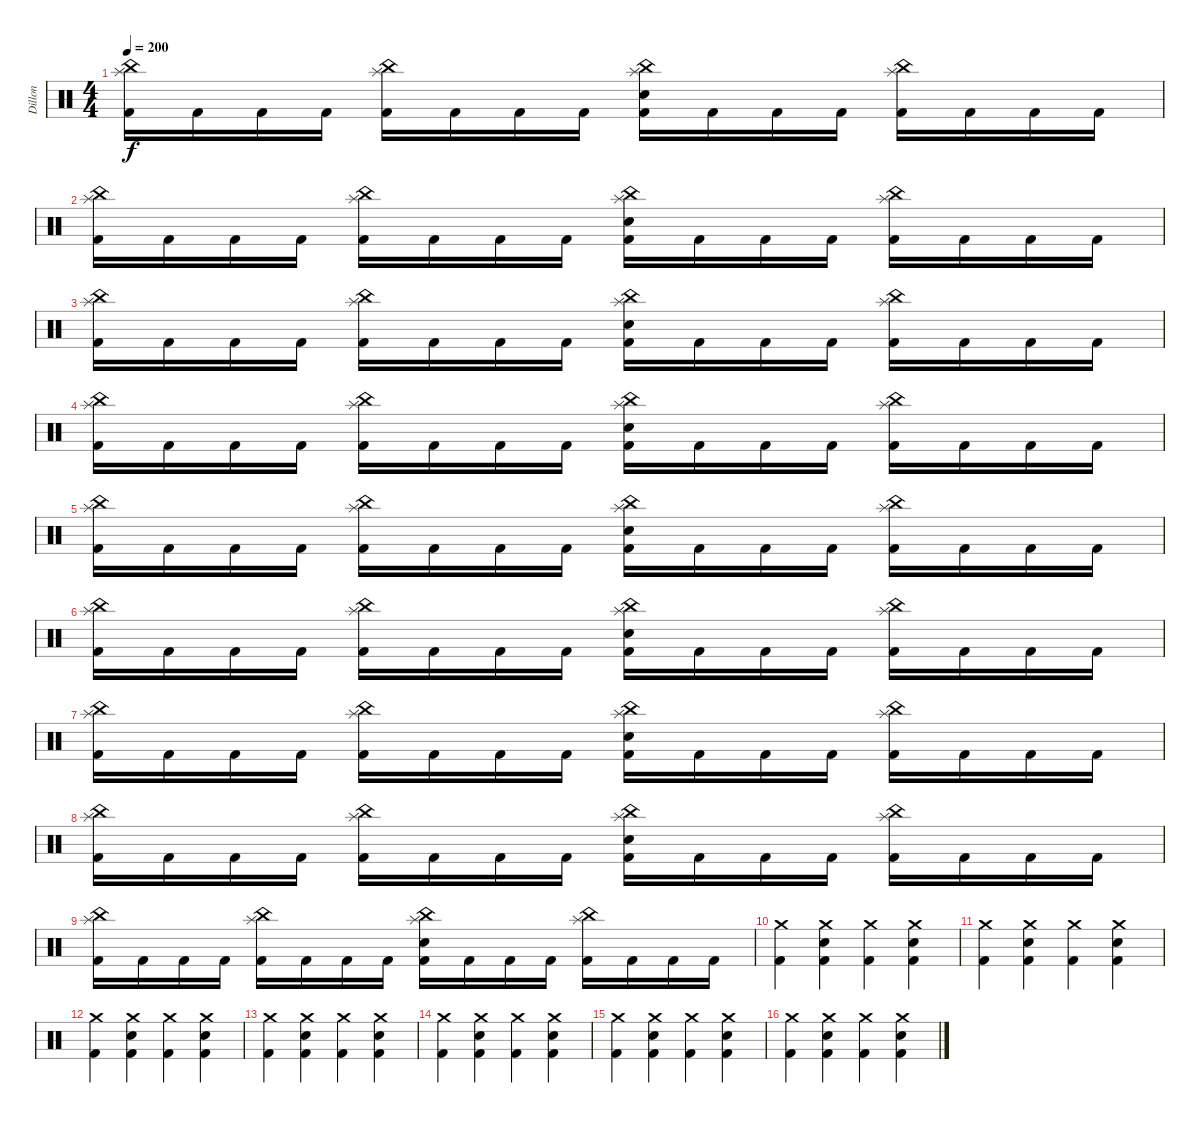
\track ("Dillon" "Dillon") {instrument percussion}
\staff {score}
\articulation defaults
\ts (4 4)
\tempo 200
\clef neutral
\ks c
("China (hit)" "Splash (hit)" "Kick (hit) 2").16{dy f} "Kick (hit) 2".16 "Kick (hit) 2".16 "Kick (hit) 2".16 ("China (hit)" "Splash (hit)" "Kick (hit) 2").16 "Kick (hit) 2".16 "Kick (hit) 2".16 "Kick (hit) 2".16 ("China (hit)" "Splash (hit)" "Electric Snare (hit)" "Kick (hit) 2").16 "Kick (hit) 2".16 "Kick (hit) 2".16 "Kick (hit) 2".16 ("China (hit)" "Splash (hit)" "Kick (hit) 2").16 "Kick (hit) 2".16 "Kick (hit) 2".16 "Kick (hit) 2".16 |
("China (hit)" "Splash (hit)" "Kick (hit) 2").16 "Kick (hit) 2".16 "Kick (hit) 2".16 "Kick (hit) 2".16 ("China (hit)" "Splash (hit)" "Kick (hit) 2").16 "Kick (hit) 2".16 "Kick (hit) 2".16 "Kick (hit) 2".16 ("China (hit)" "Splash (hit)" "Electric Snare (hit)" "Kick (hit) 2").16 "Kick (hit) 2".16 "Kick (hit) 2".16 "Kick (hit) 2".16 ("China (hit)" "Splash (hit)" "Kick (hit) 2").16 "Kick (hit) 2".16 "Kick (hit) 2".16 "Kick (hit) 2".16 |
("China (hit)" "Splash (hit)" "Kick (hit) 2").16 "Kick (hit) 2".16 "Kick (hit) 2".16 "Kick (hit) 2".16 ("China (hit)" "Splash (hit)" "Kick (hit) 2").16 "Kick (hit) 2".16 "Kick (hit) 2".16 "Kick (hit) 2".16 ("China (hit)" "Splash (hit)" "Electric Snare (hit)" "Kick (hit) 2").16 "Kick (hit) 2".16 "Kick (hit) 2".16 "Kick (hit) 2".16 ("China (hit)" "Splash (hit)" "Kick (hit) 2").16 "Kick (hit) 2".16 "Kick (hit) 2".16 "Kick (hit) 2".16 |
("China (hit)" "Splash (hit)" "Kick (hit) 2").16 "Kick (hit) 2".16 "Kick (hit) 2".16 "Kick (hit) 2".16 ("China (hit)" "Splash (hit)" "Kick (hit) 2").16 "Kick (hit) 2".16 "Kick (hit) 2".16 "Kick (hit) 2".16 ("China (hit)" "Splash (hit)" "Electric Snare (hit)" "Kick (hit) 2").16 "Kick (hit) 2".16 "Kick (hit) 2".16 "Kick (hit) 2".16 ("China (hit)" "Splash (hit)" "Kick (hit) 2").16 "Kick (hit) 2".16 "Kick (hit) 2".16 "Kick (hit) 2".16 |
("China (hit)" "Splash (hit)" "Kick (hit) 2").16 "Kick (hit) 2".16 "Kick (hit) 2".16 "Kick (hit) 2".16 ("China (hit)" "Splash (hit)" "Kick (hit) 2").16 "Kick (hit) 2".16 "Kick (hit) 2".16 "Kick (hit) 2".16 ("China (hit)" "Splash (hit)" "Electric Snare (hit)" "Kick (hit) 2").16 "Kick (hit) 2".16 "Kick (hit) 2".16 "Kick (hit) 2".16 ("China (hit)" "Splash (hit)" "Kick (hit) 2").16 "Kick (hit) 2".16 "Kick (hit) 2".16 "Kick (hit) 2".16 |
("China (hit)" "Splash (hit)" "Kick (hit) 2").16 "Kick (hit) 2".16 "Kick (hit) 2".16 "Kick (hit) 2".16 ("China (hit)" "Splash (hit)" "Kick (hit) 2").16 "Kick (hit) 2".16 "Kick (hit) 2".16 "Kick (hit) 2".16 ("China (hit)" "Splash (hit)" "Electric Snare (hit)" "Kick (hit) 2").16 "Kick (hit) 2".16 "Kick (hit) 2".16 "Kick (hit) 2".16 ("China (hit)" "Splash (hit)" "Kick (hit) 2").16 "Kick (hit) 2".16 "Kick (hit) 2".16 "Kick (hit) 2".16 |
("China (hit)" "Splash (hit)" "Kick (hit) 2").16 "Kick (hit) 2".16 "Kick (hit) 2".16 "Kick (hit) 2".16 ("China (hit)" "Splash (hit)" "Kick (hit) 2").16 "Kick (hit) 2".16 "Kick (hit) 2".16 "Kick (hit) 2".16 ("China (hit)" "Splash (hit)" "Electric Snare (hit)" "Kick (hit) 2").16 "Kick (hit) 2".16 "Kick (hit) 2".16 "Kick (hit) 2".16 ("China (hit)" "Splash (hit)" "Kick (hit) 2").16 "Kick (hit) 2".16 "Kick (hit) 2".16 "Kick (hit) 2".16 |
("China (hit)" "Splash (hit)" "Kick (hit) 2").16 "Kick (hit) 2".16 "Kick (hit) 2".16 "Kick (hit) 2".16 ("China (hit)" "Splash (hit)" "Kick (hit) 2").16 "Kick (hit) 2".16 "Kick (hit) 2".16 "Kick (hit) 2".16 ("China (hit)" "Splash (hit)" "Electric Snare (hit)" "Kick (hit) 2").16 "Kick (hit) 2".16 "Kick (hit) 2".16 "Kick (hit) 2".16 ("China (hit)" "Splash (hit)" "Kick (hit) 2").16 "Kick (hit) 2".16 "Kick (hit) 2".16 "Kick (hit) 2".16 |
("China (hit)" "Splash (hit)" "Kick (hit) 2").16 "Kick (hit) 2".16 "Kick (hit) 2".16 "Kick (hit) 2".16 ("China (hit)" "Splash (hit)" "Kick (hit) 2").16 "Kick (hit) 2".16 "Kick (hit) 2".16 "Kick (hit) 2".16 ("China (hit)" "Splash (hit)" "Electric Snare (hit)" "Kick (hit) 2").16 "Kick (hit) 2".16 "Kick (hit) 2".16 "Kick (hit) 2".16 ("China (hit)" "Splash (hit)" "Kick (hit) 2").16 "Kick (hit) 2".16 "Kick (hit) 2".16 "Kick (hit) 2".16 |
("Crash medium (hit)" "Kick (hit) 2").4 ("Crash medium (hit)" "Electric Snare (hit)" "Kick (hit) 2").4 ("Crash medium (hit)" "Kick (hit) 2").4 ("Crash medium (hit)" "Electric Snare (hit)" "Kick (hit) 2").4 |
("Crash medium (hit)" "Kick (hit) 2").4 ("Crash medium (hit)" "Electric Snare (hit)" "Kick (hit) 2").4 ("Crash medium (hit)" "Kick (hit) 2").4 ("Crash medium (hit)" "Electric Snare (hit)" "Kick (hit) 2").4 |
("Crash medium (hit)" "Kick (hit) 2").4 ("Crash medium (hit)" "Electric Snare (hit)" "Kick (hit) 2").4 ("Crash medium (hit)" "Kick (hit) 2").4 ("Crash medium (hit)" "Electric Snare (hit)" "Kick (hit) 2").4 |
("Crash medium (hit)" "Kick (hit) 2").4 ("Crash medium (hit)" "Electric Snare (hit)" "Kick (hit) 2").4 ("Crash medium (hit)" "Kick (hit) 2").4 ("Crash medium (hit)" "Electric Snare (hit)" "Kick (hit) 2").4 |
("Crash medium (hit)" "Kick (hit) 2").4 ("Crash medium (hit)" "Electric Snare (hit)" "Kick (hit) 2").4 ("Crash medium (hit)" "Kick (hit) 2").4 ("Crash medium (hit)" "Electric Snare (hit)" "Kick (hit) 2").4 |
("Crash medium (hit)" "Kick (hit) 2").4 ("Crash medium (hit)" "Electric Snare (hit)" "Kick (hit) 2").4 ("Crash medium (hit)" "Kick (hit) 2").4 ("Crash medium (hit)" "Electric Snare (hit)" "Kick (hit) 2").4 |
("Crash medium (hit)" "Kick (hit) 2").4 ("Crash medium (hit)" "Electric Snare (hit)" "Kick (hit) 2").4 ("Crash medium (hit)" "Kick (hit) 2").4 ("Crash medium (hit)" "Electric Snare (hit)" "Kick (hit) 2").4
